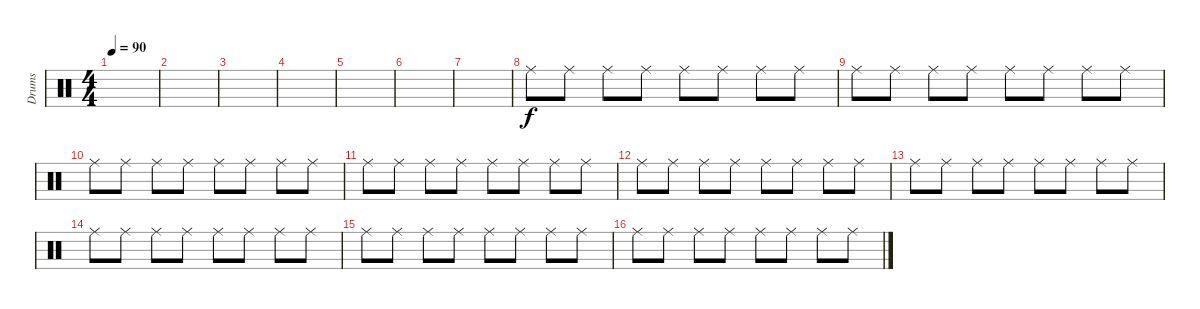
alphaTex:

\track ("Drums" "Drums") {instrument percussion}
\staff {score}
\articulation defaults
\ts (4 4)
\tempo 90
\clef neutral
\ks c
|
|
|
|
|
|
|
"Ride (middle)".8 "Ride (middle)".8 "Ride (middle)".8 "Ride (middle)".8 "Ride (middle)".8 "Ride (middle)".8 "Ride (middle)".8 "Ride (middle)".8 |
"Ride (middle)".8 "Ride (middle)".8 "Ride (middle)".8 "Ride (middle)".8 "Ride (middle)".8 "Ride (middle)".8 "Ride (middle)".8 "Ride (middle)".8 |
"Ride (middle)".8 "Ride (middle)".8 "Ride (middle)".8 "Ride (middle)".8 "Ride (middle)".8 "Ride (middle)".8 "Ride (middle)".8 "Ride (middle)".8 |
"Ride (middle)".8 "Ride (middle)".8 "Ride (middle)".8 "Ride (middle)".8 "Ride (middle)".8 "Ride (middle)".8 "Ride (middle)".8 "Ride (middle)".8 |
"Ride (middle)".8 "Ride (middle)".8 "Ride (middle)".8 "Ride (middle)".8 "Ride (middle)".8 "Ride (middle)".8 "Ride (middle)".8 "Ride (middle)".8 |
"Ride (middle)".8 "Ride (middle)".8 "Ride (middle)".8 "Ride (middle)".8 "Ride (middle)".8 "Ride (middle)".8 "Ride (middle)".8 "Ride (middle)".8 |
"Ride (middle)".8 "Ride (middle)".8 "Ride (middle)".8 "Ride (middle)".8 "Ride (middle)".8 "Ride (middle)".8 "Ride (middle)".8 "Ride (middle)".8 |
"Ride (middle)".8 "Ride (middle)".8 "Ride (middle)".8 "Ride (middle)".8 "Ride (middle)".8 "Ride (middle)".8 "Ride (middle)".8 "Ride (middle)".8 |
"Ride (middle)".8 "Ride (middle)".8 "Ride (middle)".8 "Ride (middle)".8 "Ride (middle)".8 "Ride (middle)".8 "Ride (middle)".8 "Ride (middle)".8
